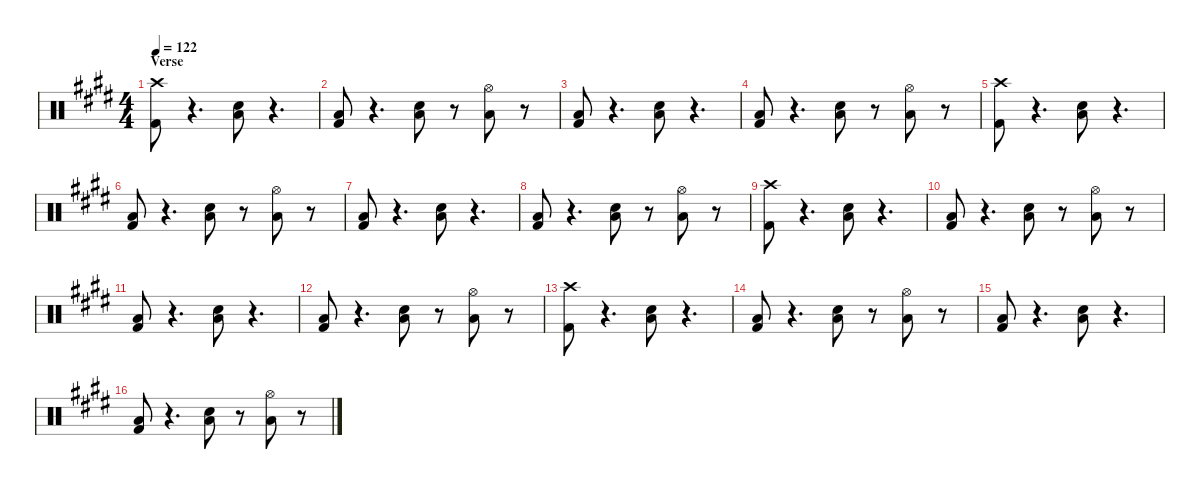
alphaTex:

\defaultSystemsLayout 4
\hideDynamics
\bracketExtendMode nobrackets
\otherSystemsTrackNameOrientation horizontal
\track ("Shinya" "  ") {instrument percussion}
\staff {score}
\articulation defaults
\ts (4 4)
\section ("" "Verse")
\tempo 122
\clef neutral
\ks c#minor
("Kick (hit) 2"{acc forcenatural} "Crash high (hit)"{acc #}).8{dy fff} r.4{d} ("Snare (hit) 2"{acc forcenatural} "Low Tom (hit)"{acc forcenatural}).8 r.4{d} |
("Kick (hit) 2"{acc forcenatural} "Low Tom (hit)"{acc forcenatural}).8 r.4{d} ("Snare (hit) 2"{acc forcenatural} "Low Tom (hit)"{acc forcenatural}).8 r.8 ("Low Tom (hit)"{acc forcenatural} "Hi-Hat (open)"{acc #}).8 r.8 |
("Kick (hit) 2"{acc forcenatural} "Low Tom (hit)"{acc forcenatural}).8 r.4{d} ("Snare (hit) 2"{acc forcenatural} "Low Tom (hit)"{acc forcenatural}).8 r.4{d} |
("Kick (hit) 2"{acc forcenatural} "Low Tom (hit)"{acc forcenatural}).8 r.4{d} ("Snare (hit) 2"{acc forcenatural} "Low Tom (hit)"{acc forcenatural}).8 r.8 ("Low Tom (hit)"{acc forcenatural} "Hi-Hat (open)"{acc #}).8 r.8 |
("Kick (hit) 2"{acc forcenatural} "Crash high (hit)"{acc #}).8 r.4{d} ("Snare (hit) 2"{acc forcenatural} "Low Tom (hit)"{acc forcenatural}).8 r.4{d} |
("Kick (hit) 2"{acc forcenatural} "Low Tom (hit)"{acc forcenatural}).8 r.4{d} ("Snare (hit) 2"{acc forcenatural} "Low Tom (hit)"{acc forcenatural}).8 r.8 ("Low Tom (hit)"{acc forcenatural} "Hi-Hat (open)"{acc #}).8 r.8 |
("Kick (hit) 2"{acc forcenatural} "Low Tom (hit)"{acc forcenatural}).8 r.4{d} ("Snare (hit) 2"{acc forcenatural} "Low Tom (hit)"{acc forcenatural}).8 r.4{d} |
("Kick (hit) 2"{acc forcenatural} "Low Tom (hit)"{acc forcenatural}).8 r.4{d} ("Snare (hit) 2"{acc forcenatural} "Low Tom (hit)"{acc forcenatural}).8 r.8 ("Low Tom (hit)"{acc forcenatural} "Hi-Hat (open)"{acc #}).8 r.8 |
("Kick (hit) 2"{acc forcenatural} "Crash high (hit)"{acc #}).8 r.4{d} ("Snare (hit) 2"{acc forcenatural} "Low Tom (hit)"{acc forcenatural}).8 r.4{d} |
("Kick (hit) 2"{acc forcenatural} "Low Tom (hit)"{acc forcenatural}).8 r.4{d} ("Snare (hit) 2"{acc forcenatural} "Low Tom (hit)"{acc forcenatural}).8 r.8 ("Low Tom (hit)"{acc forcenatural} "Hi-Hat (open)"{acc #}).8 r.8 |
("Kick (hit) 2"{acc forcenatural} "Low Tom (hit)"{acc forcenatural}).8 r.4{d} ("Snare (hit) 2"{acc forcenatural} "Low Tom (hit)"{acc forcenatural}).8 r.4{d} |
("Kick (hit) 2"{acc forcenatural} "Low Tom (hit)"{acc forcenatural}).8 r.4{d} ("Snare (hit) 2"{acc forcenatural} "Low Tom (hit)"{acc forcenatural}).8 r.8 ("Low Tom (hit)"{acc forcenatural} "Hi-Hat (open)"{acc #}).8 r.8 |
("Kick (hit) 2"{acc forcenatural} "Crash high (hit)"{acc #}).8 r.4{d} ("Snare (hit) 2"{acc forcenatural} "Low Tom (hit)"{acc forcenatural}).8 r.4{d} |
("Kick (hit) 2"{acc forcenatural} "Low Tom (hit)"{acc forcenatural}).8 r.4{d} ("Snare (hit) 2"{acc forcenatural} "Low Tom (hit)"{acc forcenatural}).8 r.8 ("Low Tom (hit)"{acc forcenatural} "Hi-Hat (open)"{acc #}).8 r.8 |
("Kick (hit) 2"{acc forcenatural} "Low Tom (hit)"{acc forcenatural}).8 r.4{d} ("Snare (hit) 2"{acc forcenatural} "Low Tom (hit)"{acc forcenatural}).8 r.4{d} |
("Kick (hit) 2"{acc forcenatural} "Low Tom (hit)"{acc forcenatural}).8 r.4{d} ("Snare (hit) 2"{acc forcenatural} "Low Tom (hit)"{acc forcenatural}).8 r.8 ("Low Tom (hit)"{acc forcenatural} "Hi-Hat (open)"{acc #}).8 r.8
